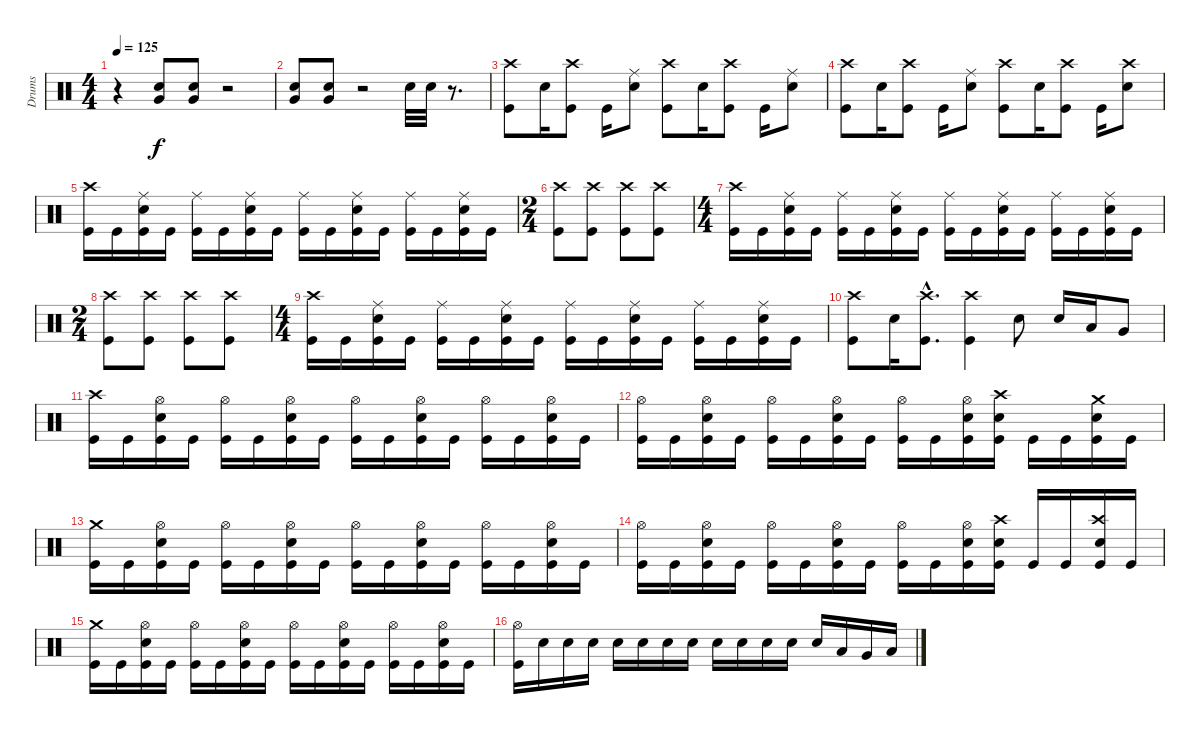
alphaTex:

\track ("Drums" "Drums") {instrument percussion}
\staff {score}
\articulation defaults
\ts (4 4)
\tempo 125
\clef neutral
\ks c
r.4{dy f} ("Snare (hit) 2" "Very Low Tom (hit)").8 ("Snare (hit) 2" "Very Low Tom (hit)").8 r.2 |
("Snare (hit) 2" "Very Low Tom (hit)").8 ("Snare (hit) 2" "Very Low Tom (hit)").8 r.2 "Snare (hit) 2".32 "Snare (hit) 2".32 r.8{d} |
("Crash high (hit)" "Kick (hit)").8 "Snare (hit) 2".16 ("Crash high (hit)" "Kick (hit)").8 "Kick (hit)".16 ("Ride (middle)" "Snare (hit) 2").8 ("Crash high (hit)" "Kick (hit)").8 "Snare (hit) 2".16 ("Crash high (hit)" "Kick (hit)").8 "Kick (hit)".16 ("Ride (middle)" "Snare (hit) 2").8 |
("Crash high (hit)" "Kick (hit)").8 "Snare (hit) 2".16 ("Crash high (hit)" "Kick (hit)").8 "Kick (hit)".16 ("Ride (middle)" "Snare (hit) 2").8 ("Crash high (hit)" "Kick (hit)").8 "Snare (hit) 2".16 ("Crash high (hit)" "Kick (hit)").8 "Kick (hit)".16 ("Crash high (hit)" "Snare (hit) 2").8 |
("Crash high (hit)" "Kick (hit)").16 "Kick (hit)".16 ("Ride (middle)" "Snare (hit) 2" "Kick (hit)").16 "Kick (hit)".16 ("Ride (middle)" "Kick (hit)").16 "Kick (hit)".16 ("Ride (middle)" "Snare (hit) 2" "Kick (hit)").16 "Kick (hit)".16 ("Ride (middle)" "Kick (hit)").16 "Kick (hit)".16 ("Ride (middle)" "Snare (hit) 2" "Kick (hit)").16 "Kick (hit)".16 ("Ride (middle)" "Kick (hit)").16 "Kick (hit)".16 ("Ride (middle)" "Snare (hit) 2" "Kick (hit)").16 "Kick (hit)".16 |
\ts (2 4)
("Crash high (hit)" "Kick (hit)").8 ("Crash high (hit)" "Kick (hit)").8 ("Crash high (hit)" "Kick (hit)").8 ("Crash high (hit)" "Kick (hit)").8 |
\ts (4 4)
("Crash high (hit)" "Kick (hit)").16 "Kick (hit)".16 ("Ride (middle)" "Snare (hit) 2" "Kick (hit)").16 "Kick (hit)".16 ("Ride (middle)" "Kick (hit)").16 "Kick (hit)".16 ("Ride (middle)" "Snare (hit) 2" "Kick (hit)").16 "Kick (hit)".16 ("Ride (middle)" "Kick (hit)").16 "Kick (hit)".16 ("Ride (middle)" "Snare (hit) 2" "Kick (hit)").16 "Kick (hit)".16 ("Ride (middle)" "Kick (hit)").16 "Kick (hit)".16 ("Ride (middle)" "Snare (hit) 2" "Kick (hit)").16 "Kick (hit)".16 |
\ts (2 4)
("Crash high (hit)" "Kick (hit)").8 ("Crash high (hit)" "Kick (hit)").8 ("Crash high (hit)" "Kick (hit)").8 ("Crash high (hit)" "Kick (hit)").8 |
\ts (4 4)
("Crash high (hit)" "Kick (hit)").16 "Kick (hit)".16 ("Ride (middle)" "Snare (hit) 2" "Kick (hit)").16 "Kick (hit)".16 ("Ride (middle)" "Kick (hit)").16 "Kick (hit)".16 ("Ride (middle)" "Snare (hit) 2" "Kick (hit)").16 "Kick (hit)".16 ("Ride (middle)" "Kick (hit)").16 "Kick (hit)".16 ("Ride (middle)" "Snare (hit) 2" "Kick (hit)").16 "Kick (hit)".16 ("Ride (middle)" "Kick (hit)").16 "Kick (hit)".16 ("Ride (middle)" "Snare (hit) 2" "Kick (hit)").16 "Kick (hit)".16 |
("Crash high (hit)" "Kick (hit)").8 "Snare (hit) 2".16 ("Crash high (hit)"{hac} "Kick (hit)"{hac}).8{d} ("Crash high (hit)" "Kick (hit)").4 "Snare (hit) 2".8 "Snare (hit) 2".16 "Low Tom (hit)".16 "Very Low Tom (hit)".8 |
("Crash high (hit)" "Kick (hit)").16 "Kick (hit)".16 ("Hi-Hat (open)" "Snare (hit) 2" "Kick (hit)").16 "Kick (hit)".16 ("Hi-Hat (open)" "Kick (hit)").16 "Kick (hit)".16 ("Hi-Hat (open)" "Snare (hit) 2" "Kick (hit)").16 "Kick (hit)".16 ("Hi-Hat (open)" "Kick (hit)").16 "Kick (hit)".16 ("Hi-Hat (open)" "Snare (hit) 2" "Kick (hit)").16 "Kick (hit)".16 ("Hi-Hat (open)" "Kick (hit)").16 "Kick (hit)".16 ("Hi-Hat (open)" "Snare (hit) 2" "Kick (hit)").16 "Kick (hit)".16 |
("Hi-Hat (open)" "Kick (hit)").16 "Kick (hit)".16 ("Hi-Hat (open)" "Snare (hit) 2" "Kick (hit)").16 "Kick (hit)".16 ("Hi-Hat (open)" "Kick (hit)").16 "Kick (hit)".16 ("Hi-Hat (open)" "Snare (hit) 2" "Kick (hit)").16 "Kick (hit)".16 ("Hi-Hat (open)" "Kick (hit)").16 "Kick (hit)".16 ("Hi-Hat (open)" "Snare (hit) 2" "Kick (hit)").16 ("Crash high (hit)" "Snare (hit) 2" "Kick (hit)").16 "Kick (hit)".16 "Kick (hit)".16 ("Crash medium (hit)" "Snare (hit) 2" "Kick (hit)").16 "Kick (hit)".16 |
("Crash medium (hit)" "Kick (hit)").16 "Kick (hit)".16 ("Hi-Hat (open)" "Snare (hit) 2" "Kick (hit)").16 "Kick (hit)".16 ("Hi-Hat (open)" "Kick (hit)").16 "Kick (hit)".16 ("Hi-Hat (open)" "Snare (hit) 2" "Kick (hit)").16 "Kick (hit)".16 ("Hi-Hat (open)" "Kick (hit)").16 "Kick (hit)".16 ("Hi-Hat (open)" "Snare (hit) 2" "Kick (hit)").16 "Kick (hit)".16 ("Hi-Hat (open)" "Kick (hit)").16 "Kick (hit)".16 ("Hi-Hat (open)" "Snare (hit) 2" "Kick (hit)").16 "Kick (hit)".16 |
("Hi-Hat (open)" "Kick (hit)").16 "Kick (hit)".16 ("Hi-Hat (open)" "Snare (hit) 2" "Kick (hit)").16 "Kick (hit)".16 ("Hi-Hat (open)" "Kick (hit)").16 "Kick (hit)".16 ("Hi-Hat (open)" "Snare (hit) 2" "Kick (hit)").16 "Kick (hit)".16 ("Hi-Hat (open)" "Kick (hit)").16 "Kick (hit)".16 ("Hi-Hat (open)" "Snare (hit) 2" "Kick (hit)").16 ("Crash high (hit)" "Snare (hit) 2" "Kick (hit)").16 "Kick (hit)".16 "Kick (hit)".16 ("Crash high (hit)" "Snare (hit) 2" "Kick (hit)").16 "Kick (hit)".16 |
("Crash medium (hit)" "Kick (hit)").16 "Kick (hit)".16 ("Hi-Hat (open)" "Snare (hit) 2" "Kick (hit)").16 "Kick (hit)".16 ("Hi-Hat (open)" "Kick (hit)").16 "Kick (hit)".16 ("Hi-Hat (open)" "Snare (hit) 2" "Kick (hit)").16 "Kick (hit)".16 ("Hi-Hat (open)" "Kick (hit)").16 "Kick (hit)".16 ("Hi-Hat (open)" "Snare (hit) 2" "Kick (hit)").16 "Kick (hit)".16 ("Hi-Hat (open)" "Kick (hit)").16 "Kick (hit)".16 ("Hi-Hat (open)" "Snare (hit) 2" "Kick (hit)").16 "Kick (hit)".16 |
("Hi-Hat (open)" "Kick (hit)").16 "Snare (hit) 2".16 "Snare (hit) 2".16 "Snare (hit) 2".16 "Snare (hit) 2".16 "Snare (hit) 2".16 "Snare (hit) 2".16 "Snare (hit) 2".16 "Snare (hit) 2".16 "Snare (hit) 2".16 "Snare (hit) 2".16 "Snare (hit) 2".16 "Snare (hit) 2".16 "Low Tom (hit)".16 "Very Low Tom (hit)".16 "Low Floor Tom (hit)".16
